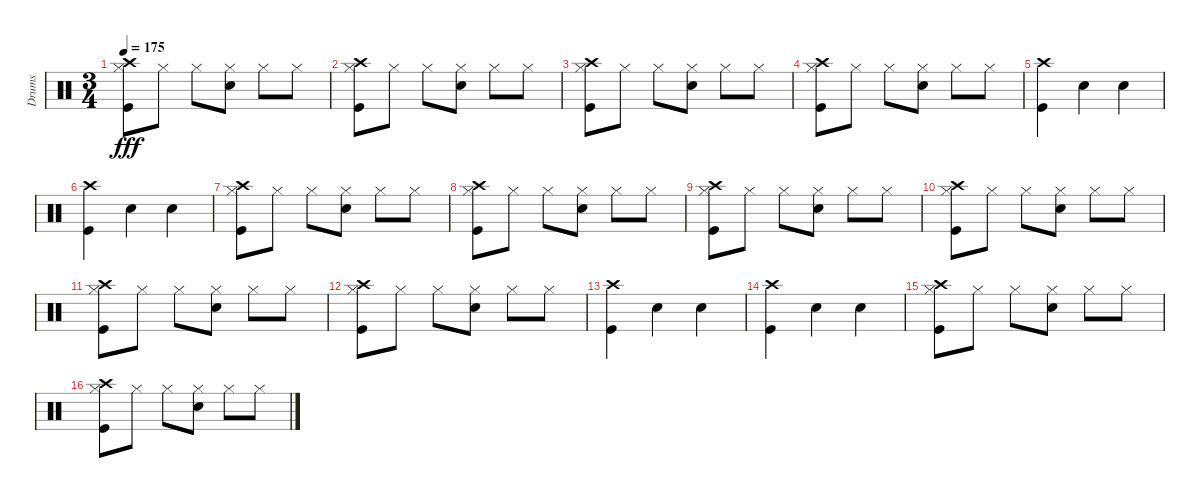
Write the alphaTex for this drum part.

\track ("Drums" "Drums") {instrument percussion}
\staff {score}
\articulation defaults
\ts (3 4)
\tempo 175
\clef neutral
\ks c
("Hi-Hat (closed)" "Kick (hit)" "Crash high (hit)").8{dy fff} "Hi-Hat (closed)".8 "Hi-Hat (closed)".8 ("Hi-Hat (closed)" "Snare (hit) 2").8 "Hi-Hat (closed)".8 "Hi-Hat (closed)".8 |
("Hi-Hat (closed)" "Kick (hit)" "Crash high (hit)").8 "Hi-Hat (closed)".8 "Hi-Hat (closed)".8 ("Hi-Hat (closed)" "Snare (hit) 2").8 "Hi-Hat (closed)".8 "Hi-Hat (closed)".8 |
("Hi-Hat (closed)" "Kick (hit)" "Crash high (hit)").8 "Hi-Hat (closed)".8 "Hi-Hat (closed)".8 ("Hi-Hat (closed)" "Snare (hit) 2").8 "Hi-Hat (closed)".8 "Hi-Hat (closed)".8 |
("Hi-Hat (closed)" "Kick (hit)" "Crash high (hit)").8 "Hi-Hat (closed)".8 "Hi-Hat (closed)".8 ("Hi-Hat (closed)" "Snare (hit) 2").8 "Hi-Hat (closed)".8 "Hi-Hat (closed)".8 |
("Crash high (hit)" "Kick (hit)").4 "Snare (hit) 2".4 "Snare (hit) 2".4 |
("Crash high (hit)" "Kick (hit)").4 "Snare (hit) 2".4 "Snare (hit) 2".4 |
("Hi-Hat (closed)" "Kick (hit)" "Crash high (hit)").8 "Hi-Hat (closed)".8 "Hi-Hat (closed)".8 ("Hi-Hat (closed)" "Snare (hit) 2").8 "Hi-Hat (closed)".8 "Hi-Hat (closed)".8 |
("Hi-Hat (closed)" "Kick (hit)" "Crash high (hit)").8 "Hi-Hat (closed)".8 "Hi-Hat (closed)".8 ("Hi-Hat (closed)" "Snare (hit) 2").8 "Hi-Hat (closed)".8 "Hi-Hat (closed)".8 |
("Hi-Hat (closed)" "Kick (hit)" "Crash high (hit)").8 "Hi-Hat (closed)".8 "Hi-Hat (closed)".8 ("Hi-Hat (closed)" "Snare (hit) 2").8 "Hi-Hat (closed)".8 "Hi-Hat (closed)".8 |
("Hi-Hat (closed)" "Kick (hit)" "Crash high (hit)").8 "Hi-Hat (closed)".8 "Hi-Hat (closed)".8 ("Hi-Hat (closed)" "Snare (hit) 2").8 "Hi-Hat (closed)".8 "Hi-Hat (closed)".8 |
("Hi-Hat (closed)" "Kick (hit)" "Crash high (hit)").8 "Hi-Hat (closed)".8 "Hi-Hat (closed)".8 ("Hi-Hat (closed)" "Snare (hit) 2").8 "Hi-Hat (closed)".8 "Hi-Hat (closed)".8 |
("Hi-Hat (closed)" "Kick (hit)" "Crash high (hit)").8 "Hi-Hat (closed)".8 "Hi-Hat (closed)".8 ("Hi-Hat (closed)" "Snare (hit) 2").8 "Hi-Hat (closed)".8 "Hi-Hat (closed)".8 |
("Crash high (hit)" "Kick (hit)").4 "Snare (hit) 2".4 "Snare (hit) 2".4 |
("Crash high (hit)" "Kick (hit)").4 "Snare (hit) 2".4 "Snare (hit) 2".4 |
("Hi-Hat (closed)" "Kick (hit)" "Crash high (hit)").8 "Hi-Hat (closed)".8 "Hi-Hat (closed)".8 ("Hi-Hat (closed)" "Snare (hit) 2").8 "Hi-Hat (closed)".8 "Hi-Hat (closed)".8 |
("Hi-Hat (closed)" "Kick (hit)" "Crash high (hit)").8 "Hi-Hat (closed)".8 "Hi-Hat (closed)".8 ("Hi-Hat (closed)" "Snare (hit) 2").8 "Hi-Hat (closed)".8 "Hi-Hat (closed)".8
